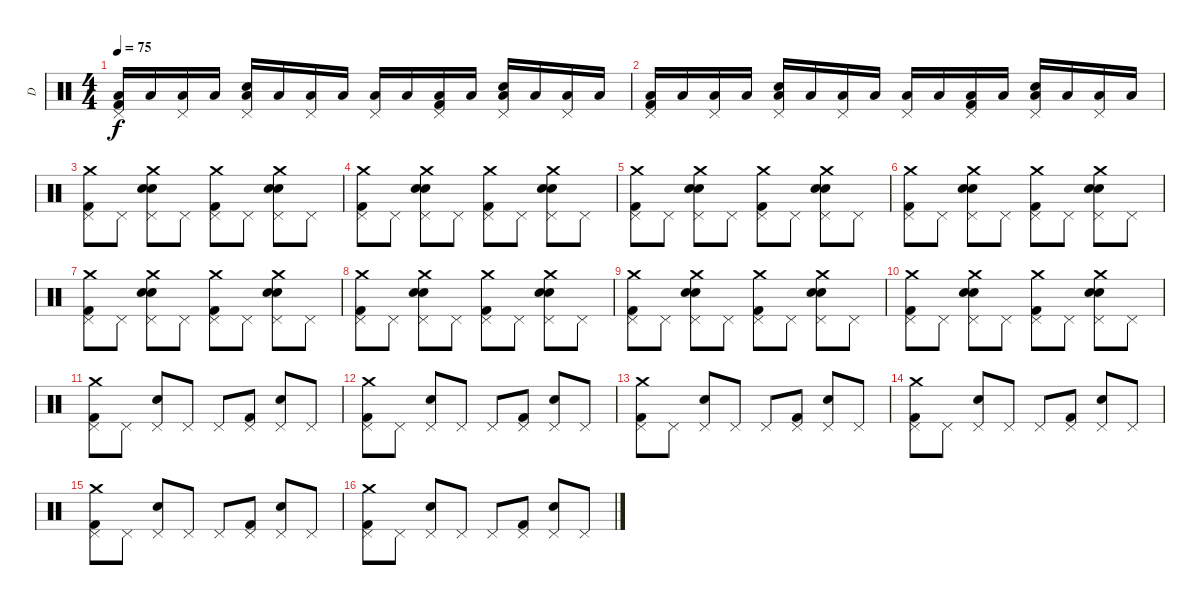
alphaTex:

\track ("D" "D") {instrument percussion}
\staff {score}
\articulation defaults
\ts (4 4)
\tempo 75
\clef neutral
\ks c
("Kick (hit) 2" "Low Floor Tom (hit)" "Pedal Hi-Hat (hit)").16{dy f} "Low Floor Tom (hit)".16 ("Low Floor Tom (hit)" "Pedal Hi-Hat (hit)").16 "Low Floor Tom (hit)".16 ("Electric Snare (hit)" "Low Floor Tom (hit)" "Pedal Hi-Hat (hit)").16 "Low Floor Tom (hit)".16 ("Low Floor Tom (hit)" "Pedal Hi-Hat (hit)").16 "Low Floor Tom (hit)".16 ("Low Floor Tom (hit)" "Pedal Hi-Hat (hit)").16 "Low Floor Tom (hit)".16 ("Kick (hit) 2" "Low Floor Tom (hit)" "Pedal Hi-Hat (hit)").16 "Low Floor Tom (hit)".16 ("Electric Snare (hit)" "Low Floor Tom (hit)" "Pedal Hi-Hat (hit)").16 "Low Floor Tom (hit)".16 ("Low Floor Tom (hit)" "Pedal Hi-Hat (hit)").16 "Low Floor Tom (hit)".16 |
("Kick (hit) 2" "Low Floor Tom (hit)" "Pedal Hi-Hat (hit)").16 "Low Floor Tom (hit)".16 ("Low Floor Tom (hit)" "Pedal Hi-Hat (hit)").16 "Low Floor Tom (hit)".16 ("Electric Snare (hit)" "Low Floor Tom (hit)" "Pedal Hi-Hat (hit)").16 "Low Floor Tom (hit)".16 ("Low Floor Tom (hit)" "Pedal Hi-Hat (hit)").16 "Low Floor Tom (hit)".16 ("Low Floor Tom (hit)" "Pedal Hi-Hat (hit)").16 "Low Floor Tom (hit)".16 ("Kick (hit) 2" "Low Floor Tom (hit)" "Pedal Hi-Hat (hit)").16 "Low Floor Tom (hit)".16 ("Electric Snare (hit)" "Low Floor Tom (hit)" "Pedal Hi-Hat (hit)").16 "Low Floor Tom (hit)".16 ("Low Floor Tom (hit)" "Pedal Hi-Hat (hit)").16 "Low Floor Tom (hit)".16 |
("Crash medium (hit)" "Kick (hit) 2" "Pedal Hi-Hat (hit)").8 "Pedal Hi-Hat (hit)".8 ("Crash medium (hit)" "Electric Snare (hit)" "Electric Snare (hit)" "Pedal Hi-Hat (hit)").8 "Pedal Hi-Hat (hit)".8 ("Crash medium (hit)" "Kick (hit) 2" "Pedal Hi-Hat (hit)").8 "Pedal Hi-Hat (hit)".8 ("Crash medium (hit)" "Electric Snare (hit)" "Electric Snare (hit)" "Pedal Hi-Hat (hit)").8 "Pedal Hi-Hat (hit)".8 |
("Crash medium (hit)" "Kick (hit) 2" "Pedal Hi-Hat (hit)").8 "Pedal Hi-Hat (hit)".8 ("Crash medium (hit)" "Electric Snare (hit)" "Electric Snare (hit)" "Pedal Hi-Hat (hit)").8 "Pedal Hi-Hat (hit)".8 ("Crash medium (hit)" "Kick (hit) 2" "Pedal Hi-Hat (hit)").8 "Pedal Hi-Hat (hit)".8 ("Crash medium (hit)" "Electric Snare (hit)" "Electric Snare (hit)" "Pedal Hi-Hat (hit)").8 "Pedal Hi-Hat (hit)".8 |
("Crash medium (hit)" "Kick (hit) 2" "Pedal Hi-Hat (hit)").8 "Pedal Hi-Hat (hit)".8 ("Crash medium (hit)" "Electric Snare (hit)" "Electric Snare (hit)" "Pedal Hi-Hat (hit)").8 "Pedal Hi-Hat (hit)".8 ("Crash medium (hit)" "Kick (hit) 2" "Pedal Hi-Hat (hit)").8 "Pedal Hi-Hat (hit)".8 ("Crash medium (hit)" "Electric Snare (hit)" "Electric Snare (hit)" "Pedal Hi-Hat (hit)").8 "Pedal Hi-Hat (hit)".8 |
("Crash medium (hit)" "Kick (hit) 2" "Pedal Hi-Hat (hit)").8 "Pedal Hi-Hat (hit)".8 ("Crash medium (hit)" "Electric Snare (hit)" "Electric Snare (hit)" "Pedal Hi-Hat (hit)").8 "Pedal Hi-Hat (hit)".8 ("Crash medium (hit)" "Kick (hit) 2" "Pedal Hi-Hat (hit)").8 "Pedal Hi-Hat (hit)".8 ("Crash medium (hit)" "Electric Snare (hit)" "Electric Snare (hit)" "Pedal Hi-Hat (hit)").8 "Pedal Hi-Hat (hit)".8 |
("Crash medium (hit)" "Kick (hit) 2" "Pedal Hi-Hat (hit)").8 "Pedal Hi-Hat (hit)".8 ("Crash medium (hit)" "Electric Snare (hit)" "Electric Snare (hit)" "Pedal Hi-Hat (hit)").8 "Pedal Hi-Hat (hit)".8 ("Crash medium (hit)" "Kick (hit) 2" "Pedal Hi-Hat (hit)").8 "Pedal Hi-Hat (hit)".8 ("Crash medium (hit)" "Electric Snare (hit)" "Electric Snare (hit)" "Pedal Hi-Hat (hit)").8 "Pedal Hi-Hat (hit)".8 |
("Crash medium (hit)" "Kick (hit) 2" "Pedal Hi-Hat (hit)").8 "Pedal Hi-Hat (hit)".8 ("Crash medium (hit)" "Electric Snare (hit)" "Electric Snare (hit)" "Pedal Hi-Hat (hit)").8 "Pedal Hi-Hat (hit)".8 ("Crash medium (hit)" "Kick (hit) 2" "Pedal Hi-Hat (hit)").8 "Pedal Hi-Hat (hit)".8 ("Crash medium (hit)" "Electric Snare (hit)" "Electric Snare (hit)" "Pedal Hi-Hat (hit)").8 "Pedal Hi-Hat (hit)".8 |
("Crash medium (hit)" "Kick (hit) 2" "Pedal Hi-Hat (hit)").8 "Pedal Hi-Hat (hit)".8 ("Crash medium (hit)" "Electric Snare (hit)" "Electric Snare (hit)" "Pedal Hi-Hat (hit)").8 "Pedal Hi-Hat (hit)".8 ("Crash medium (hit)" "Kick (hit) 2" "Pedal Hi-Hat (hit)").8 "Pedal Hi-Hat (hit)".8 ("Crash medium (hit)" "Electric Snare (hit)" "Electric Snare (hit)" "Pedal Hi-Hat (hit)").8 "Pedal Hi-Hat (hit)".8 |
("Crash medium (hit)" "Kick (hit) 2" "Pedal Hi-Hat (hit)").8 "Pedal Hi-Hat (hit)".8 ("Crash medium (hit)" "Electric Snare (hit)" "Electric Snare (hit)" "Pedal Hi-Hat (hit)").8 "Pedal Hi-Hat (hit)".8 ("Crash medium (hit)" "Kick (hit) 2" "Pedal Hi-Hat (hit)").8 "Pedal Hi-Hat (hit)".8 ("Crash medium (hit)" "Electric Snare (hit)" "Electric Snare (hit)" "Pedal Hi-Hat (hit)").8 "Pedal Hi-Hat (hit)".8 |
("Crash medium (hit)" "Kick (hit) 2" "Pedal Hi-Hat (hit)").8 "Pedal Hi-Hat (hit)".8 ("Electric Snare (hit)" "Pedal Hi-Hat (hit)").8 "Pedal Hi-Hat (hit)".8 "Pedal Hi-Hat (hit)".8 ("Kick (hit) 2" "Pedal Hi-Hat (hit)").8 ("Electric Snare (hit)" "Pedal Hi-Hat (hit)").8 "Pedal Hi-Hat (hit)".8 |
("Crash medium (hit)" "Kick (hit) 2" "Pedal Hi-Hat (hit)").8 "Pedal Hi-Hat (hit)".8 ("Electric Snare (hit)" "Pedal Hi-Hat (hit)").8 "Pedal Hi-Hat (hit)".8 "Pedal Hi-Hat (hit)".8 ("Kick (hit) 2" "Pedal Hi-Hat (hit)").8 ("Electric Snare (hit)" "Pedal Hi-Hat (hit)").8 "Pedal Hi-Hat (hit)".8 |
("Crash medium (hit)" "Kick (hit) 2" "Pedal Hi-Hat (hit)").8 "Pedal Hi-Hat (hit)".8 ("Electric Snare (hit)" "Pedal Hi-Hat (hit)").8 "Pedal Hi-Hat (hit)".8 "Pedal Hi-Hat (hit)".8 ("Kick (hit) 2" "Pedal Hi-Hat (hit)").8 ("Electric Snare (hit)" "Pedal Hi-Hat (hit)").8 "Pedal Hi-Hat (hit)".8 |
("Crash medium (hit)" "Kick (hit) 2" "Pedal Hi-Hat (hit)").8 "Pedal Hi-Hat (hit)".8 ("Electric Snare (hit)" "Pedal Hi-Hat (hit)").8 "Pedal Hi-Hat (hit)".8 "Pedal Hi-Hat (hit)".8 ("Kick (hit) 2" "Pedal Hi-Hat (hit)").8 ("Electric Snare (hit)" "Pedal Hi-Hat (hit)").8 "Pedal Hi-Hat (hit)".8 |
("Crash medium (hit)" "Kick (hit) 2" "Pedal Hi-Hat (hit)").8 "Pedal Hi-Hat (hit)".8 ("Electric Snare (hit)" "Pedal Hi-Hat (hit)").8 "Pedal Hi-Hat (hit)".8 "Pedal Hi-Hat (hit)".8 ("Kick (hit) 2" "Pedal Hi-Hat (hit)").8 ("Electric Snare (hit)" "Pedal Hi-Hat (hit)").8 "Pedal Hi-Hat (hit)".8 |
("Crash medium (hit)" "Kick (hit) 2" "Pedal Hi-Hat (hit)").8 "Pedal Hi-Hat (hit)".8 ("Electric Snare (hit)" "Pedal Hi-Hat (hit)").8 "Pedal Hi-Hat (hit)".8 "Pedal Hi-Hat (hit)".8 ("Kick (hit) 2" "Pedal Hi-Hat (hit)").8 ("Electric Snare (hit)" "Pedal Hi-Hat (hit)").8 "Pedal Hi-Hat (hit)".8
